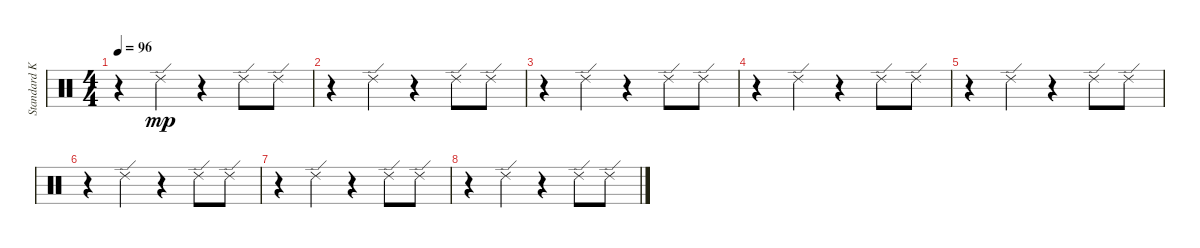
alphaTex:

\track ("Standard Kit" "Standard K") {instrument percussion}
\staff {score}
\articulation defaults
\ts (4 4)
\tempo 96
\clef neutral
\ks c
r.4{dy mp} "Ride (edge) 2".4 r.4 "Ride (edge) 2".8 "Ride (edge) 2".8 |
r.4 "Ride (edge) 2".4 r.4 "Ride (edge) 2".8 "Ride (edge) 2".8 |
r.4 "Ride (edge) 2".4 r.4 "Ride (edge) 2".8 "Ride (edge) 2".8 |
r.4 "Ride (edge) 2".4 r.4 "Ride (edge) 2".8 "Ride (edge) 2".8 |
r.4 "Ride (edge) 2".4 r.4 "Ride (edge) 2".8 "Ride (edge) 2".8 |
r.4 "Ride (edge) 2".4 r.4 "Ride (edge) 2".8 "Ride (edge) 2".8 |
r.4 "Ride (edge) 2".4 r.4 "Ride (edge) 2".8 "Ride (edge) 2".8 |
r.4 "Ride (edge) 2".4 r.4 "Ride (edge) 2".8 "Ride (edge) 2".8
